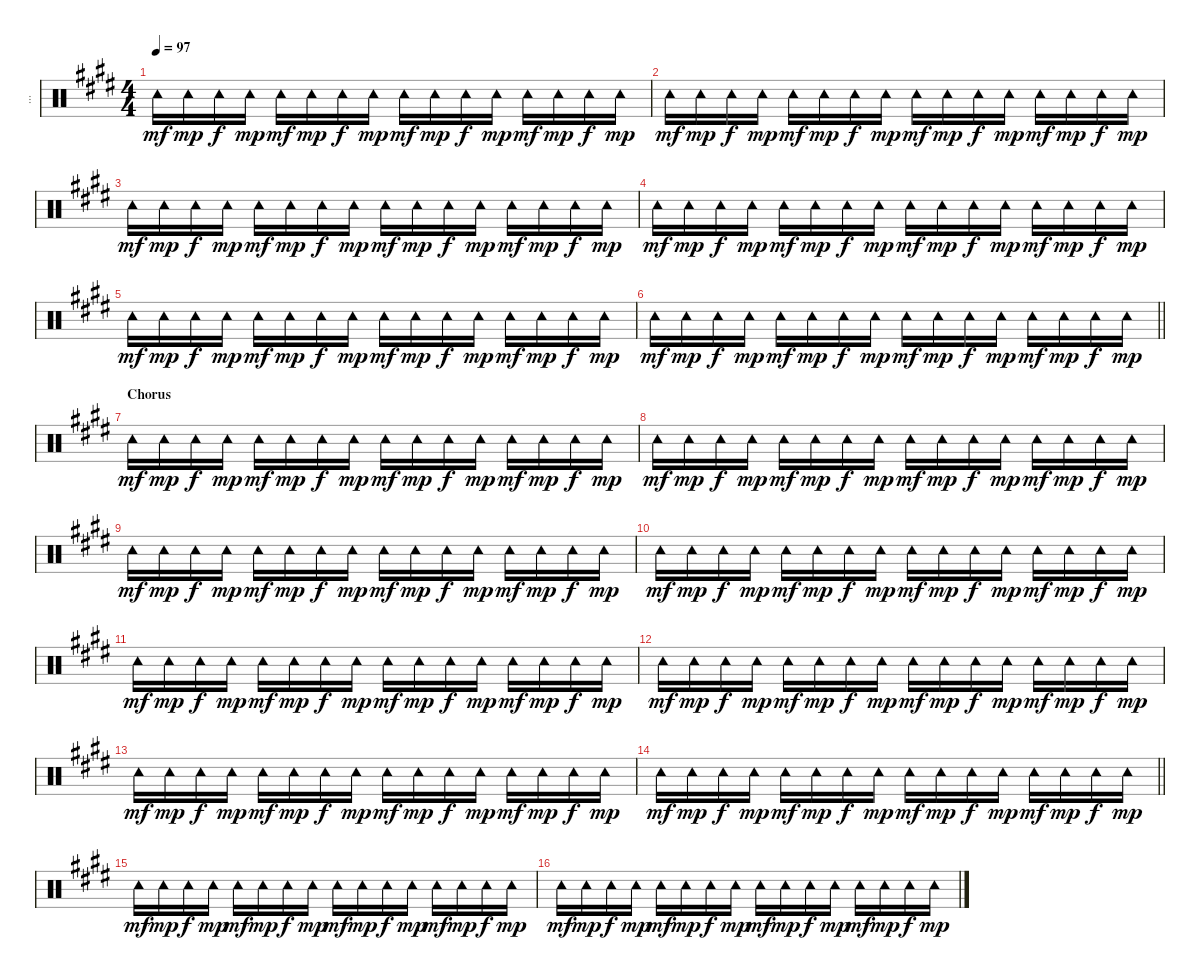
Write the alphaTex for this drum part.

\track ("..." "...") {instrument percussion}
\staff {score}
\articulation defaults
\ts (4 4)
\tempo 97
\clef neutral
\ks c#minor "Tambourine (hit)".16{dy mf} "Tambourine (hit)".16{dy mp} "Tambourine (hit)".16{dy f} "Tambourine (hit)".16{dy mp} "Tambourine (hit)".16{dy mf} "Tambourine (hit)".16{dy mp} "Tambourine (hit)".16{dy f} "Tambourine (hit)".16{dy mp} "Tambourine (hit)".16{dy mf} "Tambourine (hit)".16{dy mp} "Tambourine (hit)".16{dy f} "Tambourine (hit)".16{dy mp} "Tambourine (hit)".16{dy mf} "Tambourine (hit)".16{dy mp} "Tambourine (hit)".16{dy f} "Tambourine (hit)".16{dy mp}
|
"Tambourine (hit)".16{dy mf} "Tambourine (hit)".16{dy mp} "Tambourine (hit)".16{dy f} "Tambourine (hit)".16{dy mp} "Tambourine (hit)".16{dy mf} "Tambourine (hit)".16{dy mp} "Tambourine (hit)".16{dy f} "Tambourine (hit)".16{dy mp} "Tambourine (hit)".16{dy mf} "Tambourine (hit)".16{dy mp} "Tambourine (hit)".16{dy f} "Tambourine (hit)".16{dy mp} "Tambourine (hit)".16{dy mf} "Tambourine (hit)".16{dy mp} "Tambourine (hit)".16{dy f} "Tambourine (hit)".16{dy mp} |
"Tambourine (hit)".16{dy mf} "Tambourine (hit)".16{dy mp} "Tambourine (hit)".16{dy f} "Tambourine (hit)".16{dy mp} "Tambourine (hit)".16{dy mf} "Tambourine (hit)".16{dy mp} "Tambourine (hit)".16{dy f} "Tambourine (hit)".16{dy mp} "Tambourine (hit)".16{dy mf} "Tambourine (hit)".16{dy mp} "Tambourine (hit)".16{dy f} "Tambourine (hit)".16{dy mp} "Tambourine (hit)".16{dy mf} "Tambourine (hit)".16{dy mp} "Tambourine (hit)".16{dy f} "Tambourine (hit)".16{dy mp} |
"Tambourine (hit)".16{dy mf} "Tambourine (hit)".16{dy mp} "Tambourine (hit)".16{dy f} "Tambourine (hit)".16{dy mp} "Tambourine (hit)".16{dy mf} "Tambourine (hit)".16{dy mp} "Tambourine (hit)".16{dy f} "Tambourine (hit)".16{dy mp} "Tambourine (hit)".16{dy mf} "Tambourine (hit)".16{dy mp} "Tambourine (hit)".16{dy f} "Tambourine (hit)".16{dy mp} "Tambourine (hit)".16{dy mf} "Tambourine (hit)".16{dy mp} "Tambourine (hit)".16{dy f} "Tambourine (hit)".16{dy mp} |
"Tambourine (hit)".16{dy mf} "Tambourine (hit)".16{dy mp} "Tambourine (hit)".16{dy f} "Tambourine (hit)".16{dy mp} "Tambourine (hit)".16{dy mf} "Tambourine (hit)".16{dy mp} "Tambourine (hit)".16{dy f} "Tambourine (hit)".16{dy mp} "Tambourine (hit)".16{dy mf} "Tambourine (hit)".16{dy mp} "Tambourine (hit)".16{dy f} "Tambourine (hit)".16{dy mp} "Tambourine (hit)".16{dy mf} "Tambourine (hit)".16{dy mp} "Tambourine (hit)".16{dy f} "Tambourine (hit)".16{dy mp} |
\barLineRight lightlight "Tambourine (hit)".16{dy mf} "Tambourine (hit)".16{dy mp} "Tambourine (hit)".16{dy f} "Tambourine (hit)".16{dy mp} "Tambourine (hit)".16{dy mf} "Tambourine (hit)".16{dy mp} "Tambourine (hit)".16{dy f} "Tambourine (hit)".16{dy mp} "Tambourine (hit)".16{dy mf} "Tambourine (hit)".16{dy mp} "Tambourine (hit)".16{dy f} "Tambourine (hit)".16{dy mp} "Tambourine (hit)".16{dy mf} "Tambourine (hit)".16{dy mp} "Tambourine (hit)".16{dy f} "Tambourine (hit)".16{dy mp}
|
\section ("" "Chorus")
"Tambourine (hit)".16{dy mf} "Tambourine (hit)".16{dy mp} "Tambourine (hit)".16{dy f} "Tambourine (hit)".16{dy mp} "Tambourine (hit)".16{dy mf} "Tambourine (hit)".16{dy mp} "Tambourine (hit)".16{dy f} "Tambourine (hit)".16{dy mp} "Tambourine (hit)".16{dy mf} "Tambourine (hit)".16{dy mp} "Tambourine (hit)".16{dy f} "Tambourine (hit)".16{dy mp} "Tambourine (hit)".16{dy mf} "Tambourine (hit)".16{dy mp} "Tambourine (hit)".16{dy f} "Tambourine (hit)".16{dy mp} |
"Tambourine (hit)".16{dy mf} "Tambourine (hit)".16{dy mp} "Tambourine (hit)".16{dy f} "Tambourine (hit)".16{dy mp} "Tambourine (hit)".16{dy mf} "Tambourine (hit)".16{dy mp} "Tambourine (hit)".16{dy f} "Tambourine (hit)".16{dy mp} "Tambourine (hit)".16{dy mf} "Tambourine (hit)".16{dy mp} "Tambourine (hit)".16{dy f} "Tambourine (hit)".16{dy mp} "Tambourine (hit)".16{dy mf} "Tambourine (hit)".16{dy mp} "Tambourine (hit)".16{dy f} "Tambourine (hit)".16{dy mp} |
"Tambourine (hit)".16{dy mf} "Tambourine (hit)".16{dy mp} "Tambourine (hit)".16{dy f} "Tambourine (hit)".16{dy mp} "Tambourine (hit)".16{dy mf} "Tambourine (hit)".16{dy mp} "Tambourine (hit)".16{dy f} "Tambourine (hit)".16{dy mp} "Tambourine (hit)".16{dy mf} "Tambourine (hit)".16{dy mp} "Tambourine (hit)".16{dy f} "Tambourine (hit)".16{dy mp} "Tambourine (hit)".16{dy mf} "Tambourine (hit)".16{dy mp} "Tambourine (hit)".16{dy f} "Tambourine (hit)".16{dy mp} |
"Tambourine (hit)".16{dy mf} "Tambourine (hit)".16{dy mp} "Tambourine (hit)".16{dy f} "Tambourine (hit)".16{dy mp} "Tambourine (hit)".16{dy mf} "Tambourine (hit)".16{dy mp} "Tambourine (hit)".16{dy f} "Tambourine (hit)".16{dy mp} "Tambourine (hit)".16{dy mf} "Tambourine (hit)".16{dy mp} "Tambourine (hit)".16{dy f} "Tambourine (hit)".16{dy mp} "Tambourine (hit)".16{dy mf} "Tambourine (hit)".16{dy mp} "Tambourine (hit)".16{dy f} "Tambourine (hit)".16{dy mp} |
"Tambourine (hit)".16{dy mf} "Tambourine (hit)".16{dy mp} "Tambourine (hit)".16{dy f} "Tambourine (hit)".16{dy mp} "Tambourine (hit)".16{dy mf} "Tambourine (hit)".16{dy mp} "Tambourine (hit)".16{dy f} "Tambourine (hit)".16{dy mp} "Tambourine (hit)".16{dy mf} "Tambourine (hit)".16{dy mp} "Tambourine (hit)".16{dy f} "Tambourine (hit)".16{dy mp} "Tambourine (hit)".16{dy mf} "Tambourine (hit)".16{dy mp} "Tambourine (hit)".16{dy f} "Tambourine (hit)".16{dy mp} |
"Tambourine (hit)".16{dy mf} "Tambourine (hit)".16{dy mp} "Tambourine (hit)".16{dy f} "Tambourine (hit)".16{dy mp} "Tambourine (hit)".16{dy mf} "Tambourine (hit)".16{dy mp} "Tambourine (hit)".16{dy f} "Tambourine (hit)".16{dy mp} "Tambourine (hit)".16{dy mf} "Tambourine (hit)".16{dy mp} "Tambourine (hit)".16{dy f} "Tambourine (hit)".16{dy mp} "Tambourine (hit)".16{dy mf} "Tambourine (hit)".16{dy mp} "Tambourine (hit)".16{dy f} "Tambourine (hit)".16{dy mp} |
"Tambourine (hit)".16{dy mf} "Tambourine (hit)".16{dy mp} "Tambourine (hit)".16{dy f} "Tambourine (hit)".16{dy mp} "Tambourine (hit)".16{dy mf} "Tambourine (hit)".16{dy mp} "Tambourine (hit)".16{dy f} "Tambourine (hit)".16{dy mp} "Tambourine (hit)".16{dy mf} "Tambourine (hit)".16{dy mp} "Tambourine (hit)".16{dy f} "Tambourine (hit)".16{dy mp} "Tambourine (hit)".16{dy mf} "Tambourine (hit)".16{dy mp} "Tambourine (hit)".16{dy f} "Tambourine (hit)".16{dy mp} |
\barLineRight lightlight "Tambourine (hit)".16{dy mf} "Tambourine (hit)".16{dy mp} "Tambourine (hit)".16{dy f} "Tambourine (hit)".16{dy mp} "Tambourine (hit)".16{dy mf} "Tambourine (hit)".16{dy mp} "Tambourine (hit)".16{dy f} "Tambourine (hit)".16{dy mp} "Tambourine (hit)".16{dy mf} "Tambourine (hit)".16{dy mp} "Tambourine (hit)".16{dy f} "Tambourine (hit)".16{dy mp} "Tambourine (hit)".16{dy mf} "Tambourine (hit)".16{dy mp} "Tambourine (hit)".16{dy f} "Tambourine (hit)".16{dy mp}
|
\section ("" "")
"Tambourine (hit)".16{dy mf} "Tambourine (hit)".16{dy mp} "Tambourine (hit)".16{dy f} "Tambourine (hit)".16{dy mp} "Tambourine (hit)".16{dy mf} "Tambourine (hit)".16{dy mp} "Tambourine (hit)".16{dy f} "Tambourine (hit)".16{dy mp} "Tambourine (hit)".16{dy mf} "Tambourine (hit)".16{dy mp} "Tambourine (hit)".16{dy f} "Tambourine (hit)".16{dy mp} "Tambourine (hit)".16{dy mf} "Tambourine (hit)".16{dy mp} "Tambourine (hit)".16{dy f} "Tambourine (hit)".16{dy mp} |
"Tambourine (hit)".16{dy mf} "Tambourine (hit)".16{dy mp} "Tambourine (hit)".16{dy f} "Tambourine (hit)".16{dy mp} "Tambourine (hit)".16{dy mf} "Tambourine (hit)".16{dy mp} "Tambourine (hit)".16{dy f} "Tambourine (hit)".16{dy mp} "Tambourine (hit)".16{dy mf} "Tambourine (hit)".16{dy mp} "Tambourine (hit)".16{dy f} "Tambourine (hit)".16{dy mp} "Tambourine (hit)".16{dy mf} "Tambourine (hit)".16{dy mp} "Tambourine (hit)".16{dy f} "Tambourine (hit)".16{dy mp}
